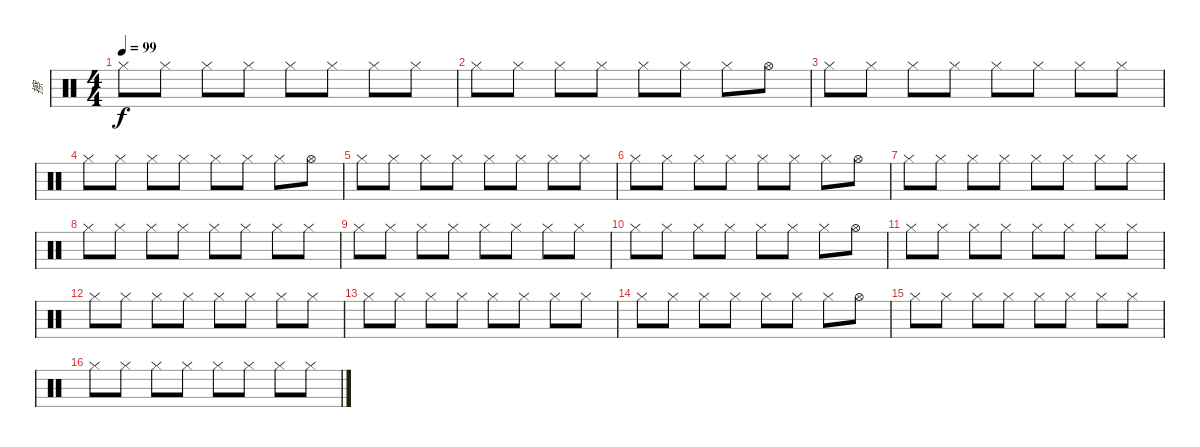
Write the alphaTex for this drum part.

\track ("擦" "擦") {instrument percussion}
\staff {score}
\articulation defaults
\ts (4 4)
\tempo 99
\clef neutral
\ks c "Hi-Hat (closed)".8{dy f} "Hi-Hat (closed)".8 "Hi-Hat (closed)".8 "Hi-Hat (closed)".8 "Hi-Hat (closed)".8 "Hi-Hat (closed)".8 "Hi-Hat (closed)".8 "Hi-Hat (closed)".8
|
"Hi-Hat (closed)".8 "Hi-Hat (closed)".8 "Hi-Hat (closed)".8 "Hi-Hat (closed)".8 "Hi-Hat (closed)".8 "Hi-Hat (closed)".8 "Hi-Hat (closed)".8 "Hi-Hat (open)".8 |
"Hi-Hat (closed)".8 "Hi-Hat (closed)".8 "Hi-Hat (closed)".8 "Hi-Hat (closed)".8 "Hi-Hat (closed)".8 "Hi-Hat (closed)".8 "Hi-Hat (closed)".8 "Hi-Hat (closed)".8 |
"Hi-Hat (closed)".8 "Hi-Hat (closed)".8 "Hi-Hat (closed)".8 "Hi-Hat (closed)".8 "Hi-Hat (closed)".8 "Hi-Hat (closed)".8 "Hi-Hat (closed)".8 "Hi-Hat (open)".8 |
"Hi-Hat (closed)".8 "Hi-Hat (closed)".8 "Hi-Hat (closed)".8 "Hi-Hat (closed)".8 "Hi-Hat (closed)".8 "Hi-Hat (closed)".8 "Hi-Hat (closed)".8 "Hi-Hat (closed)".8 |
"Hi-Hat (closed)".8 "Hi-Hat (closed)".8 "Hi-Hat (closed)".8 "Hi-Hat (closed)".8 "Hi-Hat (closed)".8 "Hi-Hat (closed)".8 "Hi-Hat (closed)".8 "Hi-Hat (open)".8 |
"Hi-Hat (closed)".8 "Hi-Hat (closed)".8 "Hi-Hat (closed)".8 "Hi-Hat (closed)".8 "Hi-Hat (closed)".8 "Hi-Hat (closed)".8 "Hi-Hat (closed)".8 "Hi-Hat (closed)".8 |
"Hi-Hat (closed)".8 "Hi-Hat (closed)".8 "Hi-Hat (closed)".8 "Hi-Hat (closed)".8 "Hi-Hat (closed)".8 "Hi-Hat (closed)".8 "Hi-Hat (closed)".8 "Hi-Hat (closed)".8 |
"Hi-Hat (closed)".8 "Hi-Hat (closed)".8 "Hi-Hat (closed)".8 "Hi-Hat (closed)".8 "Hi-Hat (closed)".8 "Hi-Hat (closed)".8 "Hi-Hat (closed)".8 "Hi-Hat (closed)".8 |
"Hi-Hat (closed)".8 "Hi-Hat (closed)".8 "Hi-Hat (closed)".8 "Hi-Hat (closed)".8 "Hi-Hat (closed)".8 "Hi-Hat (closed)".8 "Hi-Hat (closed)".8 "Hi-Hat (open)".8 |
"Hi-Hat (closed)".8 "Hi-Hat (closed)".8 "Hi-Hat (closed)".8 "Hi-Hat (closed)".8 "Hi-Hat (closed)".8 "Hi-Hat (closed)".8 "Hi-Hat (closed)".8 "Hi-Hat (closed)".8 |
"Hi-Hat (closed)".8 "Hi-Hat (closed)".8 "Hi-Hat (closed)".8 "Hi-Hat (closed)".8 "Hi-Hat (closed)".8 "Hi-Hat (closed)".8 "Hi-Hat (closed)".8 "Hi-Hat (closed)".8 |
"Hi-Hat (closed)".8 "Hi-Hat (closed)".8 "Hi-Hat (closed)".8 "Hi-Hat (closed)".8 "Hi-Hat (closed)".8 "Hi-Hat (closed)".8 "Hi-Hat (closed)".8 "Hi-Hat (closed)".8 |
"Hi-Hat (closed)".8 "Hi-Hat (closed)".8 "Hi-Hat (closed)".8 "Hi-Hat (closed)".8 "Hi-Hat (closed)".8 "Hi-Hat (closed)".8 "Hi-Hat (closed)".8 "Hi-Hat (open)".8 |
"Hi-Hat (closed)".8 "Hi-Hat (closed)".8 "Hi-Hat (closed)".8 "Hi-Hat (closed)".8 "Hi-Hat (closed)".8 "Hi-Hat (closed)".8 "Hi-Hat (closed)".8 "Hi-Hat (closed)".8 |
"Hi-Hat (closed)".8 "Hi-Hat (closed)".8 "Hi-Hat (closed)".8 "Hi-Hat (closed)".8 "Hi-Hat (closed)".8 "Hi-Hat (closed)".8 "Hi-Hat (closed)".8 "Hi-Hat (closed)".8
